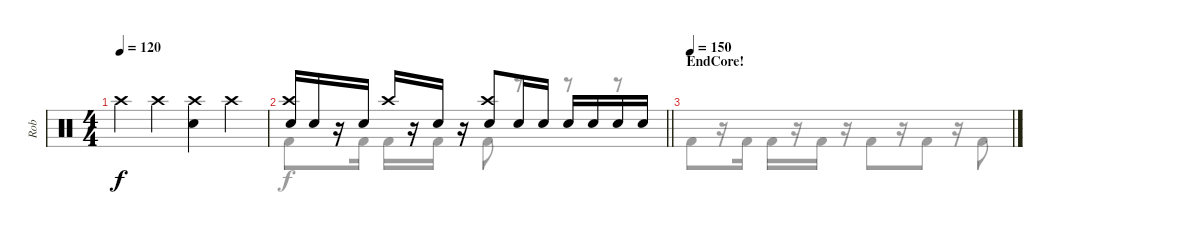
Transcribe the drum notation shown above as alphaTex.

\track ("Rob" "Rob") {instrument percussion}
\staff {score}
\articulation defaults
\voice
\ts (4 4)
\tempo 120
\clef neutral
\ks c "Crash high (hit)".4{dy f} "Crash high (hit)".4
("Crash high (hit)" "Snare (hit) 2").4 "Crash high (hit)".4 |
\barLineRight lightlight
("Crash high (hit)" "Snare (hit) 2").16 "Snare (hit) 2".16 r.16 "Snare (hit) 2".16 "Crash high (hit)".16 r.16 "Snare (hit) 2".16 r.16 ("Crash high (hit)" "Snare (hit) 2").8 "Snare (hit) 2".16 "Snare (hit) 2".16 "Snare (hit) 2".16 "Snare (hit) 2".16 "Snare (hit) 2".16 "Snare (hit) 2".16 |
\section ("" "EndCore!")
\tempo 150
\voice
\clef neutral
\ottava regular
\simile none
\ks c "Kick (hit) 2".8{dy f}
r.16 "Kick (hit) 2".16 "Kick (hit) 2".16 r.16 "Kick (hit) 2".16 r.16 "Kick (hit) 2".8 r.16 "Kick (hit) 2".8 r.16 "Kick (hit) 2".8 |
\barLineRight lightlight "Kick (hit) 2".8
r.16 "Kick (hit) 2".16 "Kick (hit) 2".16 r.16 "Kick (hit) 2".16 r.16 "Kick (hit) 2".8 r.8 r.8 r.8 |
